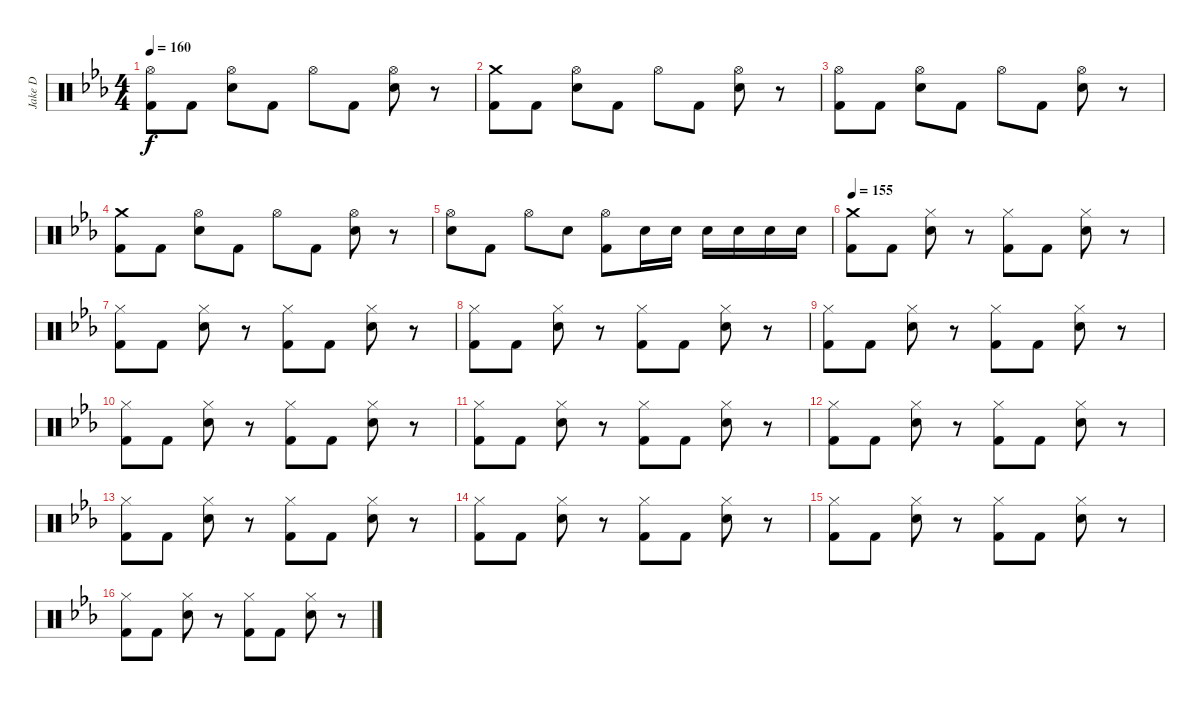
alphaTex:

\track ("Jake D" "Jake D") {instrument percussion}
\staff {score}
\articulation defaults
\ts (4 4)
\tempo 160
\clef neutral
\ks cminor
("Hi-Hat (open)" "Kick (hit) 2").8{dy f} "Kick (hit) 2".8 ("Hi-Hat (open)" "Electric Snare (hit)").8 "Kick (hit) 2".8 "Hi-Hat (open)".8 "Kick (hit) 2".8 ("Hi-Hat (open)" "Electric Snare (hit)").8 r.8 |
("Crash medium (hit)" "Kick (hit) 2").8 "Kick (hit) 2".8 ("Hi-Hat (open)" "Electric Snare (hit)").8 "Kick (hit) 2".8 "Hi-Hat (open)".8 "Kick (hit) 2".8 ("Hi-Hat (open)" "Electric Snare (hit)").8 r.8 |
("Hi-Hat (open)" "Kick (hit) 2").8 "Kick (hit) 2".8 ("Hi-Hat (open)" "Electric Snare (hit)").8 "Kick (hit) 2".8 "Hi-Hat (open)".8 "Kick (hit) 2".8 ("Hi-Hat (open)" "Electric Snare (hit)").8 r.8 |
("Crash medium (hit)" "Kick (hit) 2").8 "Kick (hit) 2".8 ("Hi-Hat (open)" "Electric Snare (hit)").8 "Kick (hit) 2".8 "Hi-Hat (open)".8 "Kick (hit) 2".8 ("Hi-Hat (open)" "Electric Snare (hit)").8 r.8 |
("Hi-Hat (open)" "Electric Snare (hit)").8 "Kick (hit) 2".8 "Hi-Hat (open)".8 "Electric Snare (hit)".8 ("Hi-Hat (open)" "Kick (hit) 2").8 "Electric Snare (hit)".16 "Electric Snare (hit)".16 "Electric Snare (hit)".16 "Electric Snare (hit)".16 "Electric Snare (hit)".16 "Electric Snare (hit)".16 |
\tempo 155
("Crash medium (hit)" "Kick (hit) 2").8 "Kick (hit) 2".8 ("Hi-Hat (closed)" "Electric Snare (hit)").8 r.8 ("Hi-Hat (closed)" "Kick (hit) 2").8 "Kick (hit) 2".8 ("Hi-Hat (closed)" "Electric Snare (hit)").8 r.8 |
("Hi-Hat (closed)" "Kick (hit) 2").8 "Kick (hit) 2".8 ("Hi-Hat (closed)" "Electric Snare (hit)").8 r.8 ("Hi-Hat (closed)" "Kick (hit) 2").8 "Kick (hit) 2".8 ("Hi-Hat (closed)" "Electric Snare (hit)").8 r.8 |
("Hi-Hat (closed)" "Kick (hit) 2").8 "Kick (hit) 2".8 ("Hi-Hat (closed)" "Electric Snare (hit)").8 r.8 ("Hi-Hat (closed)" "Kick (hit) 2").8 "Kick (hit) 2".8 ("Hi-Hat (closed)" "Electric Snare (hit)").8 r.8 |
("Hi-Hat (closed)" "Kick (hit) 2").8 "Kick (hit) 2".8 ("Hi-Hat (closed)" "Electric Snare (hit)").8 r.8 ("Hi-Hat (closed)" "Kick (hit) 2").8 "Kick (hit) 2".8 ("Hi-Hat (closed)" "Electric Snare (hit)").8 r.8 |
("Hi-Hat (closed)" "Kick (hit) 2").8 "Kick (hit) 2".8 ("Hi-Hat (closed)" "Electric Snare (hit)").8 r.8 ("Hi-Hat (closed)" "Kick (hit) 2").8 "Kick (hit) 2".8 ("Hi-Hat (closed)" "Electric Snare (hit)").8 r.8 |
("Hi-Hat (closed)" "Kick (hit) 2").8 "Kick (hit) 2".8 ("Hi-Hat (closed)" "Electric Snare (hit)").8 r.8 ("Hi-Hat (closed)" "Kick (hit) 2").8 "Kick (hit) 2".8 ("Hi-Hat (closed)" "Electric Snare (hit)").8 r.8 |
("Hi-Hat (closed)" "Kick (hit) 2").8 "Kick (hit) 2".8 ("Hi-Hat (closed)" "Electric Snare (hit)").8 r.8 ("Hi-Hat (closed)" "Kick (hit) 2").8 "Kick (hit) 2".8 ("Hi-Hat (closed)" "Electric Snare (hit)").8 r.8 |
("Hi-Hat (closed)" "Kick (hit) 2").8 "Kick (hit) 2".8 ("Hi-Hat (closed)" "Electric Snare (hit)").8 r.8 ("Hi-Hat (closed)" "Kick (hit) 2").8 "Kick (hit) 2".8 ("Hi-Hat (closed)" "Electric Snare (hit)").8 r.8 |
("Hi-Hat (closed)" "Kick (hit) 2").8 "Kick (hit) 2".8 ("Hi-Hat (closed)" "Electric Snare (hit)").8 r.8 ("Hi-Hat (closed)" "Kick (hit) 2").8 "Kick (hit) 2".8 ("Hi-Hat (closed)" "Electric Snare (hit)").8 r.8 |
("Hi-Hat (closed)" "Kick (hit) 2").8 "Kick (hit) 2".8 ("Hi-Hat (closed)" "Electric Snare (hit)").8 r.8 ("Hi-Hat (closed)" "Kick (hit) 2").8 "Kick (hit) 2".8 ("Hi-Hat (closed)" "Electric Snare (hit)").8 r.8 |
("Hi-Hat (closed)" "Kick (hit) 2").8 "Kick (hit) 2".8 ("Hi-Hat (closed)" "Electric Snare (hit)").8 r.8 ("Hi-Hat (closed)" "Kick (hit) 2").8 "Kick (hit) 2".8 ("Hi-Hat (closed)" "Electric Snare (hit)").8 r.8
